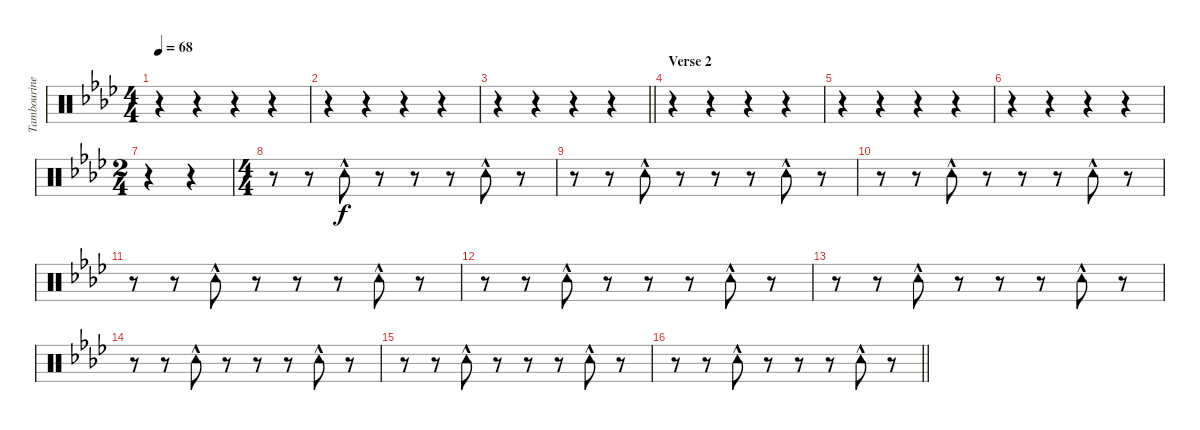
\track ("Tambourine" "Tambourine") {instrument percussion}
\staff {score}
\articulation defaults
\ts (4 4)
\tempo 68
\clef neutral
\ks ab
r.4{dy f} r.4 r.4 r.4 |
r.4 r.4 r.4 r.4 |
\barLineRight lightlight
r.4 r.4 r.4 r.4 |
\section ("" "Verse 2")
r.4 r.4 r.4 r.4 |
r.4 r.4 r.4 r.4 |
r.4 r.4 r.4 r.4 |
\ts (2 4)
r.4 r.4 |
\ts (4 4)
r.8 r.8 "Tambourine (hit)"{hac}.8 r.8 r.8 r.8 "Tambourine (hit)"{hac}.8 r.8 |
r.8 r.8 "Tambourine (hit)"{hac}.8 r.8 r.8 r.8 "Tambourine (hit)"{hac}.8 r.8 |
r.8 r.8 "Tambourine (hit)"{hac}.8 r.8 r.8 r.8 "Tambourine (hit)"{hac}.8 r.8 |
r.8 r.8 "Tambourine (hit)"{hac}.8 r.8 r.8 r.8 "Tambourine (hit)"{hac}.8 r.8 |
r.8 r.8 "Tambourine (hit)"{hac}.8 r.8 r.8 r.8 "Tambourine (hit)"{hac}.8 r.8 |
r.8 r.8 "Tambourine (hit)"{hac}.8 r.8 r.8 r.8 "Tambourine (hit)"{hac}.8 r.8 |
r.8 r.8 "Tambourine (hit)"{hac}.8 r.8 r.8 r.8 "Tambourine (hit)"{hac}.8 r.8 |
r.8 r.8 "Tambourine (hit)"{hac}.8 r.8 r.8 r.8 "Tambourine (hit)"{hac}.8 r.8 |
\barLineRight lightlight
r.8 r.8 "Tambourine (hit)"{hac}.8 r.8 r.8 r.8 "Tambourine (hit)"{hac}.8 r.8
